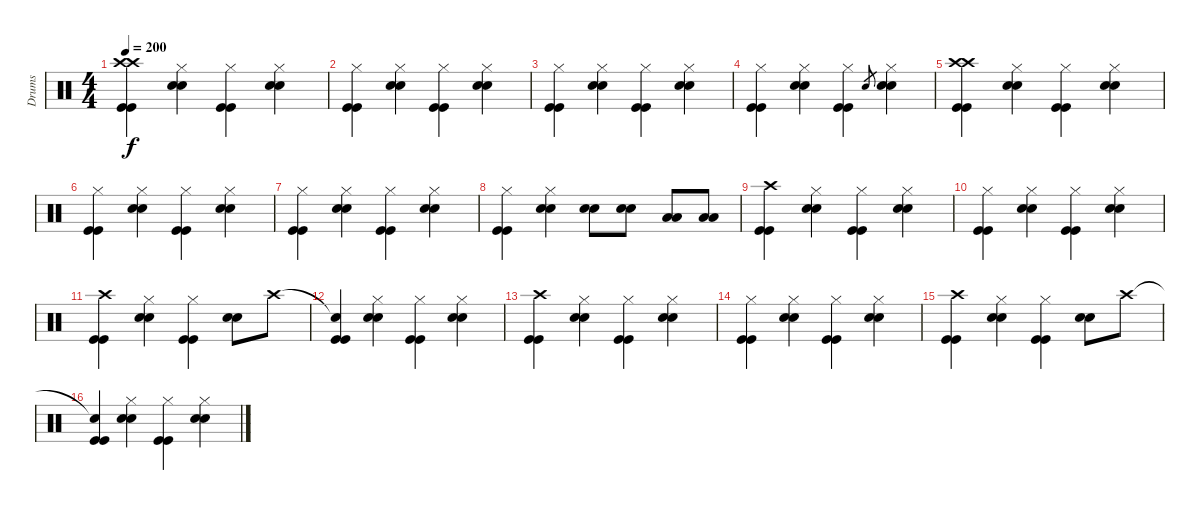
\track ("Drums" "Drums") {instrument percussion}
\staff {score}
\articulation defaults
\ts (4 4)
\tempo 200
\clef neutral
\ks c
("Crash high (hit)" "Crash high (hit)" "Kick (hit)" "Kick (hit)").4{dy f} ("Hi-Hat (closed)" "Electric Snare (hit)" "Electric Snare (hit)").4 ("Hi-Hat (closed)" "Kick (hit)" "Kick (hit)").4 ("Hi-Hat (closed)" "Electric Snare (hit)" "Electric Snare (hit)").4 |
("Hi-Hat (closed)" "Kick (hit)" "Kick (hit)").4 ("Hi-Hat (closed)" "Electric Snare (hit)" "Electric Snare (hit)").4 ("Hi-Hat (closed)" "Kick (hit)" "Kick (hit)").4 ("Hi-Hat (closed)" "Electric Snare (hit)" "Electric Snare (hit)").4 |
("Hi-Hat (closed)" "Kick (hit)" "Kick (hit)").4 ("Hi-Hat (closed)" "Electric Snare (hit)" "Electric Snare (hit)").4 ("Hi-Hat (closed)" "Kick (hit)" "Kick (hit)").4 ("Hi-Hat (closed)" "Electric Snare (hit)" "Electric Snare (hit)").4 |
("Hi-Hat (closed)" "Kick (hit)" "Kick (hit)").4 ("Hi-Hat (closed)" "Electric Snare (hit)" "Electric Snare (hit)").4 ("Hi-Hat (closed)" "Kick (hit)" "Kick (hit)").4 "Electric Snare (hit)".8{gr} ("Hi-Hat (closed)" "Electric Snare (hit)" "Electric Snare (hit)").4 |
("Crash high (hit)" "Crash high (hit)" "Kick (hit)" "Kick (hit)").4 ("Hi-Hat (closed)" "Electric Snare (hit)" "Electric Snare (hit)").4 ("Hi-Hat (closed)" "Kick (hit)" "Kick (hit)").4 ("Hi-Hat (closed)" "Electric Snare (hit)" "Electric Snare (hit)").4 |
("Hi-Hat (closed)" "Kick (hit)" "Kick (hit)").4 ("Hi-Hat (closed)" "Electric Snare (hit)" "Electric Snare (hit)").4 ("Hi-Hat (closed)" "Kick (hit)" "Kick (hit)").4 ("Hi-Hat (closed)" "Electric Snare (hit)" "Electric Snare (hit)").4 |
("Hi-Hat (closed)" "Kick (hit)" "Kick (hit)").4 ("Hi-Hat (closed)" "Electric Snare (hit)" "Electric Snare (hit)").4 ("Hi-Hat (closed)" "Kick (hit)" "Kick (hit)").4 ("Hi-Hat (closed)" "Electric Snare (hit)" "Electric Snare (hit)").4 |
("Hi-Hat (closed)" "Kick (hit)" "Kick (hit)").4 ("Hi-Hat (closed)" "Electric Snare (hit)" "Electric Snare (hit)").4 ("Electric Snare (hit)" "Electric Snare (hit)").8 ("Electric Snare (hit)" "Electric Snare (hit)").8 ("Low Tom (hit)" "Low Tom (hit)").8 ("Low Tom (hit)" "Low Tom (hit)").8 |
("Crash high (hit)" "Kick (hit)" "Kick (hit)").4 ("Hi-Hat (closed)" "Electric Snare (hit)" "Electric Snare (hit)").4 ("Hi-Hat (closed)" "Kick (hit)" "Kick (hit)").4 ("Hi-Hat (closed)" "Electric Snare (hit)" "Electric Snare (hit)").4 |
("Hi-Hat (closed)" "Kick (hit)" "Kick (hit)").4 ("Hi-Hat (closed)" "Electric Snare (hit)" "Electric Snare (hit)").4 ("Hi-Hat (closed)" "Kick (hit)" "Kick (hit)").4 ("Hi-Hat (closed)" "Electric Snare (hit)" "Electric Snare (hit)").4 |
("Crash high (hit)" "Kick (hit)" "Kick (hit)").4 ("Hi-Hat (closed)" "Electric Snare (hit)" "Electric Snare (hit)").4 ("Hi-Hat (closed)" "Kick (hit)" "Kick (hit)").4 ("Electric Snare (hit)" "Electric Snare (hit)").8 "Crash high (hit)".8 |
("Snare (hit)"{t} "Kick (hit)" "Kick (hit)").4 ("Hi-Hat (closed)" "Electric Snare (hit)" "Electric Snare (hit)").4 ("Hi-Hat (closed)" "Kick (hit)" "Kick (hit)").4 ("Hi-Hat (closed)" "Electric Snare (hit)" "Electric Snare (hit)").4 |
("Crash high (hit)" "Kick (hit)" "Kick (hit)").4 ("Hi-Hat (closed)" "Electric Snare (hit)" "Electric Snare (hit)").4 ("Hi-Hat (closed)" "Kick (hit)" "Kick (hit)").4 ("Hi-Hat (closed)" "Electric Snare (hit)" "Electric Snare (hit)").4 |
("Hi-Hat (closed)" "Kick (hit)" "Kick (hit)").4 ("Hi-Hat (closed)" "Electric Snare (hit)" "Electric Snare (hit)").4 ("Hi-Hat (closed)" "Kick (hit)" "Kick (hit)").4 ("Hi-Hat (closed)" "Electric Snare (hit)" "Electric Snare (hit)").4 |
("Crash high (hit)" "Kick (hit)" "Kick (hit)").4 ("Hi-Hat (closed)" "Electric Snare (hit)" "Electric Snare (hit)").4 ("Hi-Hat (closed)" "Kick (hit)" "Kick (hit)").4 ("Electric Snare (hit)" "Electric Snare (hit)").8 "Crash high (hit)".8 |
("Snare (hit)"{t} "Kick (hit)" "Kick (hit)").4 ("Hi-Hat (closed)" "Electric Snare (hit)" "Electric Snare (hit)").4 ("Hi-Hat (closed)" "Kick (hit)" "Kick (hit)").4 ("Hi-Hat (closed)" "Electric Snare (hit)" "Electric Snare (hit)").4
